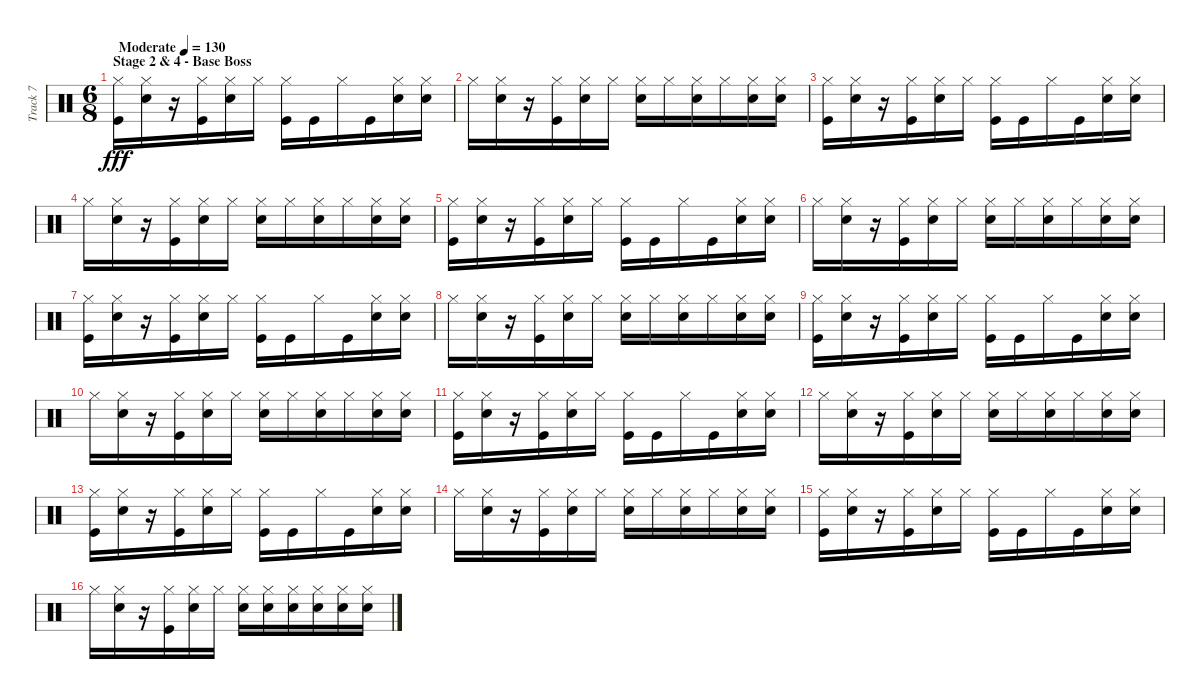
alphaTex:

\track ("Track 7" "Track 7") {instrument percussion}
\staff {score}
\articulation defaults
\ts (6 8)
\section ("" "Stage 2 & 4 - Base Boss")
\tempo (130 "Moderate")
\clef neutral
\ks c
("Kick (hit)" "Hi-Hat (closed)").16{dy fff} ("Snare (hit) 2" "Hi-Hat (closed)").16 r.16 ("Kick (hit)" "Hi-Hat (closed)").16 ("Snare (hit) 2" "Hi-Hat (closed)").16 "Hi-Hat (closed)".16 ("Kick (hit)" "Hi-Hat (closed)").16 "Kick (hit)".16 "Hi-Hat (closed)".16 "Kick (hit)".16 ("Snare (hit) 2" "Hi-Hat (closed)").16 ("Snare (hit) 2" "Hi-Hat (closed)").16 |
"Hi-Hat (closed)".16 ("Snare (hit) 2" "Hi-Hat (closed)").16 r.16 ("Kick (hit)" "Hi-Hat (closed)").16 ("Snare (hit) 2" "Hi-Hat (closed)").16 "Hi-Hat (closed)".16 ("Snare (hit) 2" "Hi-Hat (closed)").16 "Hi-Hat (closed)".16 ("Snare (hit) 2" "Hi-Hat (closed)").16 "Hi-Hat (closed)".16 ("Snare (hit) 2" "Hi-Hat (closed)").16 ("Snare (hit) 2" "Hi-Hat (closed)").16 |
("Kick (hit)" "Hi-Hat (closed)").16 ("Snare (hit) 2" "Hi-Hat (closed)").16 r.16 ("Kick (hit)" "Hi-Hat (closed)").16 ("Snare (hit) 2" "Hi-Hat (closed)").16 "Hi-Hat (closed)".16 ("Kick (hit)" "Hi-Hat (closed)").16 "Kick (hit)".16 "Hi-Hat (closed)".16 "Kick (hit)".16 ("Snare (hit) 2" "Hi-Hat (closed)").16 ("Snare (hit) 2" "Hi-Hat (closed)").16 |
"Hi-Hat (closed)".16 ("Snare (hit) 2" "Hi-Hat (closed)").16 r.16 ("Kick (hit)" "Hi-Hat (closed)").16 ("Snare (hit) 2" "Hi-Hat (closed)").16 "Hi-Hat (closed)".16 ("Snare (hit) 2" "Hi-Hat (closed)").16 "Hi-Hat (closed)".16 ("Snare (hit) 2" "Hi-Hat (closed)").16 "Hi-Hat (closed)".16 ("Snare (hit) 2" "Hi-Hat (closed)").16 ("Snare (hit) 2" "Hi-Hat (closed)").16 |
("Kick (hit)" "Hi-Hat (closed)").16 ("Snare (hit) 2" "Hi-Hat (closed)").16 r.16 ("Kick (hit)" "Hi-Hat (closed)").16 ("Snare (hit) 2" "Hi-Hat (closed)").16 "Hi-Hat (closed)".16 ("Kick (hit)" "Hi-Hat (closed)").16 "Kick (hit)".16 "Hi-Hat (closed)".16 "Kick (hit)".16 ("Snare (hit) 2" "Hi-Hat (closed)").16 ("Snare (hit) 2" "Hi-Hat (closed)").16 |
"Hi-Hat (closed)".16 ("Snare (hit) 2" "Hi-Hat (closed)").16 r.16 ("Kick (hit)" "Hi-Hat (closed)").16 ("Snare (hit) 2" "Hi-Hat (closed)").16 "Hi-Hat (closed)".16 ("Snare (hit) 2" "Hi-Hat (closed)").16 "Hi-Hat (closed)".16 ("Snare (hit) 2" "Hi-Hat (closed)").16 "Hi-Hat (closed)".16 ("Snare (hit) 2" "Hi-Hat (closed)").16 ("Snare (hit) 2" "Hi-Hat (closed)").16 |
("Kick (hit)" "Hi-Hat (closed)").16 ("Snare (hit) 2" "Hi-Hat (closed)").16 r.16 ("Kick (hit)" "Hi-Hat (closed)").16 ("Snare (hit) 2" "Hi-Hat (closed)").16 "Hi-Hat (closed)".16 ("Kick (hit)" "Hi-Hat (closed)").16 "Kick (hit)".16 "Hi-Hat (closed)".16 "Kick (hit)".16 ("Snare (hit) 2" "Hi-Hat (closed)").16 ("Snare (hit) 2" "Hi-Hat (closed)").16 |
"Hi-Hat (closed)".16 ("Snare (hit) 2" "Hi-Hat (closed)").16 r.16 ("Kick (hit)" "Hi-Hat (closed)").16 ("Snare (hit) 2" "Hi-Hat (closed)").16 "Hi-Hat (closed)".16 ("Snare (hit) 2" "Hi-Hat (closed)").16 "Hi-Hat (closed)".16 ("Snare (hit) 2" "Hi-Hat (closed)").16 "Hi-Hat (closed)".16 ("Snare (hit) 2" "Hi-Hat (closed)").16 ("Snare (hit) 2" "Hi-Hat (closed)").16 |
("Kick (hit)" "Hi-Hat (closed)").16 ("Snare (hit) 2" "Hi-Hat (closed)").16 r.16 ("Kick (hit)" "Hi-Hat (closed)").16 ("Snare (hit) 2" "Hi-Hat (closed)").16 "Hi-Hat (closed)".16 ("Kick (hit)" "Hi-Hat (closed)").16 "Kick (hit)".16 "Hi-Hat (closed)".16 "Kick (hit)".16 ("Snare (hit) 2" "Hi-Hat (closed)").16 ("Snare (hit) 2" "Hi-Hat (closed)").16 |
"Hi-Hat (closed)".16 ("Snare (hit) 2" "Hi-Hat (closed)").16 r.16 ("Kick (hit)" "Hi-Hat (closed)").16 ("Snare (hit) 2" "Hi-Hat (closed)").16 "Hi-Hat (closed)".16 ("Snare (hit) 2" "Hi-Hat (closed)").16 "Hi-Hat (closed)".16 ("Snare (hit) 2" "Hi-Hat (closed)").16 "Hi-Hat (closed)".16 ("Snare (hit) 2" "Hi-Hat (closed)").16 ("Snare (hit) 2" "Hi-Hat (closed)").16 |
("Kick (hit)" "Hi-Hat (closed)").16 ("Snare (hit) 2" "Hi-Hat (closed)").16 r.16 ("Kick (hit)" "Hi-Hat (closed)").16 ("Snare (hit) 2" "Hi-Hat (closed)").16 "Hi-Hat (closed)".16 ("Kick (hit)" "Hi-Hat (closed)").16 "Kick (hit)".16 "Hi-Hat (closed)".16 "Kick (hit)".16 ("Snare (hit) 2" "Hi-Hat (closed)").16 ("Snare (hit) 2" "Hi-Hat (closed)").16 |
"Hi-Hat (closed)".16 ("Snare (hit) 2" "Hi-Hat (closed)").16 r.16 ("Kick (hit)" "Hi-Hat (closed)").16 ("Snare (hit) 2" "Hi-Hat (closed)").16 "Hi-Hat (closed)".16 ("Snare (hit) 2" "Hi-Hat (closed)").16 "Hi-Hat (closed)".16 ("Snare (hit) 2" "Hi-Hat (closed)").16 "Hi-Hat (closed)".16 ("Snare (hit) 2" "Hi-Hat (closed)").16 ("Snare (hit) 2" "Hi-Hat (closed)").16 |
("Kick (hit)" "Hi-Hat (closed)").16 ("Snare (hit) 2" "Hi-Hat (closed)").16 r.16 ("Kick (hit)" "Hi-Hat (closed)").16 ("Snare (hit) 2" "Hi-Hat (closed)").16 "Hi-Hat (closed)".16 ("Kick (hit)" "Hi-Hat (closed)").16 "Kick (hit)".16 "Hi-Hat (closed)".16 "Kick (hit)".16 ("Snare (hit) 2" "Hi-Hat (closed)").16 ("Snare (hit) 2" "Hi-Hat (closed)").16 |
"Hi-Hat (closed)".16 ("Snare (hit) 2" "Hi-Hat (closed)").16 r.16 ("Kick (hit)" "Hi-Hat (closed)").16 ("Snare (hit) 2" "Hi-Hat (closed)").16 "Hi-Hat (closed)".16 ("Snare (hit) 2" "Hi-Hat (closed)").16 "Hi-Hat (closed)".16 ("Snare (hit) 2" "Hi-Hat (closed)").16 "Hi-Hat (closed)".16 ("Snare (hit) 2" "Hi-Hat (closed)").16 ("Snare (hit) 2" "Hi-Hat (closed)").16 |
("Kick (hit)" "Hi-Hat (closed)").16 ("Snare (hit) 2" "Hi-Hat (closed)").16 r.16 ("Kick (hit)" "Hi-Hat (closed)").16 ("Snare (hit) 2" "Hi-Hat (closed)").16 "Hi-Hat (closed)".16 ("Kick (hit)" "Hi-Hat (closed)").16 "Kick (hit)".16 "Hi-Hat (closed)".16 "Kick (hit)".16 ("Snare (hit) 2" "Hi-Hat (closed)").16 ("Snare (hit) 2" "Hi-Hat (closed)").16 |
"Hi-Hat (closed)".16 ("Snare (hit) 2" "Hi-Hat (closed)").16 r.16 ("Kick (hit)" "Hi-Hat (closed)").16 ("Snare (hit) 2" "Hi-Hat (closed)").16 "Hi-Hat (closed)".16 ("Snare (hit) 2" "Hi-Hat (closed)").16 ("Snare (hit) 2" "Hi-Hat (closed)").16 ("Snare (hit) 2" "Hi-Hat (closed)").16 ("Snare (hit) 2" "Hi-Hat (closed)").16 ("Snare (hit) 2" "Hi-Hat (closed)").16 ("Snare (hit) 2" "Hi-Hat (closed)").16
